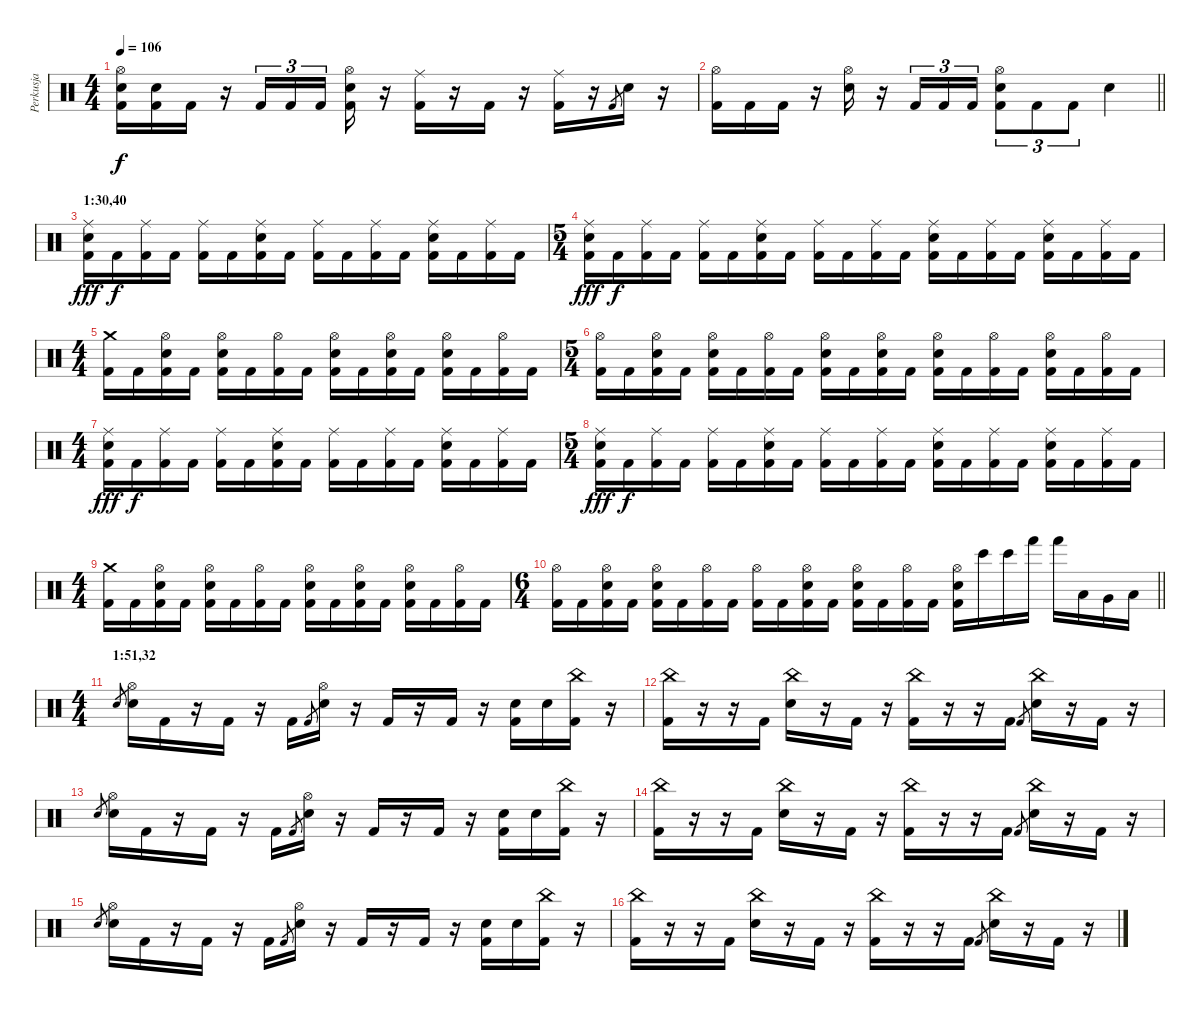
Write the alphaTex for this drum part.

\track ("Perkusja" "Perkusja") {instrument percussion}
\staff {score}
\articulation defaults
\ts (4 4)
\tempo 106
\clef neutral
\ks c
("Hi-Hat (open)" "Electric Snare (hit)" "Kick (hit) 2").16{dy f} ("Electric Snare (hit)" "Kick (hit) 2").16 "Kick (hit) 2".16 r.16 "Kick (hit) 2".16{tu (3 2)} "Kick (hit) 2".16{tu (3 2)} "Kick (hit) 2".16{tu (3 2) beam splitsecondary} ("Hi-Hat (open)" "Electric Snare (hit)" "Kick (hit) 2").16 r.16 ("Ride (middle)" "Kick (hit) 2").16 r.16 "Kick (hit) 2".16 r.16 ("Ride (middle)" "Kick (hit) 2").16 r.16 "Kick (hit) 2".8{gr} "Electric Snare (hit)".16 r.16 |
\barLineRight lightlight
("Hi-Hat (open)" "Kick (hit) 2").16 "Kick (hit) 2".16 "Kick (hit) 2".16 r.16 ("Hi-Hat (open)" "Electric Snare (hit)").16 r.16 "Kick (hit) 2".16{tu (3 2)} "Kick (hit) 2".16{tu (3 2)} "Kick (hit) 2".16{tu (3 2)} ("Hi-Hat (open)" "Electric Snare (hit)" "Kick (hit) 2").8{tu (3 2)} "Kick (hit) 2".8{tu (3 2)} "Kick (hit) 2".8{tu (3 2)} "Electric Snare (hit)".4 |
\section ("" "1:30,40")
("Ride (middle)" "Electric Snare (hit)" "Kick (hit) 2").16{dy fff} "Kick (hit) 2".16{dy f} ("Ride (middle)" "Kick (hit) 2").16 "Kick (hit) 2".16 ("Ride (middle)" "Kick (hit) 2").16 "Kick (hit) 2".16 ("Ride (middle)" "Electric Snare (hit)" "Kick (hit) 2").16 "Kick (hit) 2".16 ("Ride (middle)" "Kick (hit) 2").16 "Kick (hit) 2".16 ("Ride (middle)" "Kick (hit) 2").16 "Kick (hit) 2".16 ("Ride (middle)" "Electric Snare (hit)" "Kick (hit) 2").16 "Kick (hit) 2".16 ("Ride (middle)" "Kick (hit) 2").16 "Kick (hit) 2".16 |
\ts (5 4)
("Ride (middle)" "Electric Snare (hit)" "Kick (hit) 2").16{dy fff} "Kick (hit) 2".16{dy f} ("Ride (middle)" "Kick (hit) 2").16 "Kick (hit) 2".16 ("Ride (middle)" "Kick (hit) 2").16 "Kick (hit) 2".16 ("Ride (middle)" "Electric Snare (hit)" "Kick (hit) 2").16 "Kick (hit) 2".16 ("Ride (middle)" "Kick (hit) 2").16 "Kick (hit) 2".16 ("Ride (middle)" "Kick (hit) 2").16 "Kick (hit) 2".16 ("Ride (middle)" "Electric Snare (hit)" "Kick (hit) 2").16 "Kick (hit) 2".16 ("Ride (middle)" "Kick (hit) 2").16 "Kick (hit) 2".16 ("Ride (middle)" "Electric Snare (hit)" "Kick (hit) 2").16 "Kick (hit) 2".16 ("Ride (middle)" "Kick (hit) 2").16 "Kick (hit) 2".16 |
\ts (4 4)
("Crash medium (hit)" "Kick (hit) 2").16 "Kick (hit) 2".16 ("Hi-Hat (open)" "Electric Snare (hit)" "Kick (hit) 2").16 "Kick (hit) 2".16 ("Hi-Hat (open)" "Electric Snare (hit)" "Kick (hit) 2").16 "Kick (hit) 2".16 ("Hi-Hat (open)" "Kick (hit) 2").16 "Kick (hit) 2".16 ("Hi-Hat (open)" "Electric Snare (hit)" "Kick (hit) 2").16 "Kick (hit) 2".16 ("Hi-Hat (open)" "Electric Snare (hit)" "Kick (hit) 2").16 "Kick (hit) 2".16 ("Hi-Hat (open)" "Electric Snare (hit)" "Kick (hit) 2").16 "Kick (hit) 2".16 ("Hi-Hat (open)" "Kick (hit) 2").16 "Kick (hit) 2".16 |
\ts (5 4)
("Hi-Hat (open)" "Kick (hit) 2").16 "Kick (hit) 2".16 ("Hi-Hat (open)" "Electric Snare (hit)" "Kick (hit) 2").16 "Kick (hit) 2".16 ("Hi-Hat (open)" "Electric Snare (hit)" "Kick (hit) 2").16 "Kick (hit) 2".16 ("Hi-Hat (open)" "Kick (hit) 2").16 "Kick (hit) 2".16 ("Hi-Hat (open)" "Electric Snare (hit)" "Kick (hit) 2").16 "Kick (hit) 2".16 ("Hi-Hat (open)" "Electric Snare (hit)" "Kick (hit) 2").16 "Kick (hit) 2".16 ("Hi-Hat (open)" "Electric Snare (hit)" "Kick (hit) 2").16 "Kick (hit) 2".16 ("Hi-Hat (open)" "Kick (hit) 2").16 "Kick (hit) 2".16 ("Hi-Hat (open)" "Electric Snare (hit)" "Kick (hit) 2").16 "Kick (hit) 2".16 ("Hi-Hat (open)" "Kick (hit) 2").16 "Kick (hit) 2".16 |
\ts (4 4)
("Ride (middle)" "Electric Snare (hit)" "Kick (hit) 2").16{dy fff} "Kick (hit) 2".16{dy f} ("Ride (middle)" "Kick (hit) 2").16 "Kick (hit) 2".16 ("Ride (middle)" "Kick (hit) 2").16 "Kick (hit) 2".16 ("Ride (middle)" "Electric Snare (hit)" "Kick (hit) 2").16 "Kick (hit) 2".16 ("Ride (middle)" "Kick (hit) 2").16 "Kick (hit) 2".16 ("Ride (middle)" "Kick (hit) 2").16 "Kick (hit) 2".16 ("Ride (middle)" "Electric Snare (hit)" "Kick (hit) 2").16 "Kick (hit) 2".16 ("Ride (middle)" "Kick (hit) 2").16 "Kick (hit) 2".16 |
\ts (5 4)
("Ride (middle)" "Electric Snare (hit)" "Kick (hit) 2").16{dy fff} "Kick (hit) 2".16{dy f} ("Ride (middle)" "Kick (hit) 2").16 "Kick (hit) 2".16 ("Ride (middle)" "Kick (hit) 2").16 "Kick (hit) 2".16 ("Ride (middle)" "Electric Snare (hit)" "Kick (hit) 2").16 "Kick (hit) 2".16 ("Ride (middle)" "Kick (hit) 2").16 "Kick (hit) 2".16 ("Ride (middle)" "Kick (hit) 2").16 "Kick (hit) 2".16 ("Ride (middle)" "Electric Snare (hit)" "Kick (hit) 2").16 "Kick (hit) 2".16 ("Ride (middle)" "Kick (hit) 2").16 "Kick (hit) 2".16 ("Ride (middle)" "Electric Snare (hit)" "Kick (hit) 2").16 "Kick (hit) 2".16 ("Ride (middle)" "Kick (hit) 2").16 "Kick (hit) 2".16 |
\ts (4 4)
("Crash medium (hit)" "Kick (hit) 2").16 "Kick (hit) 2".16 ("Hi-Hat (open)" "Electric Snare (hit)" "Kick (hit) 2").16 "Kick (hit) 2".16 ("Hi-Hat (open)" "Electric Snare (hit)" "Kick (hit) 2").16 "Kick (hit) 2".16 ("Hi-Hat (open)" "Kick (hit) 2").16 "Kick (hit) 2".16 ("Hi-Hat (open)" "Electric Snare (hit)" "Kick (hit) 2").16 "Kick (hit) 2".16 ("Hi-Hat (open)" "Electric Snare (hit)" "Kick (hit) 2").16 "Kick (hit) 2".16 ("Hi-Hat (open)" "Electric Snare (hit)" "Kick (hit) 2").16 "Kick (hit) 2".16 ("Hi-Hat (open)" "Kick (hit) 2").16 "Kick (hit) 2".16 |
\ts (6 4)
\barLineRight lightlight
("Hi-Hat (open)" "Kick (hit) 2").16 "Kick (hit) 2".16 ("Hi-Hat (open)" "Electric Snare (hit)" "Kick (hit) 2").16 "Kick (hit) 2".16 ("Hi-Hat (open)" "Electric Snare (hit)" "Kick (hit) 2").16 "Kick (hit) 2".16 ("Hi-Hat (open)" "Kick (hit) 2").16 "Kick (hit) 2".16 ("Hi-Hat (open)" "Kick (hit) 2").16 "Kick (hit) 2".16 ("Hi-Hat (open)" "Electric Snare (hit)" "Kick (hit) 2").16 "Kick (hit) 2".16 ("Hi-Hat (open)" "Electric Snare (hit)" "Kick (hit) 2").16 "Kick (hit) 2".16 ("Hi-Hat (open)" "Kick (hit) 2").16 "Kick (hit) 2".16 ("Hi-Hat (open)" "Electric Snare (hit)" "Kick (hit) 2").16 "Bongo High (hit)".16 "Bongo High (hit)".16 "Hand (hit)".16 "Hand (hit)".16 "Low Tom (hit)".16 "Very Low Tom (hit)".16 "Low Floor Tom (hit)".16 |
\ts (4 4)
\section ("" "1:51,32")
"Electric Snare (hit)".8{gr} ("Hi-Hat (open)" "Electric Snare (hit)").16 "Kick (hit) 2".16 r.16 "Kick (hit) 2".16 r.16 "Kick (hit) 2".16 "Kick (hit) 2".8{gr} ("Hi-Hat (open)" "Electric Snare (hit)").16 r.16 "Kick (hit) 2".16 r.16 "Kick (hit) 2".16 r.16 ("Electric Snare (hit)" "Kick (hit) 2").16 "Electric Snare (hit)".16 ("China (hit)" "Kick (hit) 2").16 r.16 |
("China (hit)" "Kick (hit) 2").16 r.16 r.16 "Kick (hit) 2".16 ("China (hit)" "Electric Snare (hit)").16 r.16 "Kick (hit) 2".16 r.16 ("China (hit)" "Kick (hit) 2").16 r.16 r.16 "Kick (hit) 2".16 "Kick (hit) 2".8{gr} ("China (hit)" "Electric Snare (hit)").16 r.16 "Kick (hit) 2".16 r.16 |
"Electric Snare (hit)".8{gr} ("Hi-Hat (open)" "Electric Snare (hit)").16 "Kick (hit) 2".16 r.16 "Kick (hit) 2".16 r.16 "Kick (hit) 2".16 "Kick (hit) 2".8{gr} ("Hi-Hat (open)" "Electric Snare (hit)").16 r.16 "Kick (hit) 2".16 r.16 "Kick (hit) 2".16 r.16 ("Electric Snare (hit)" "Kick (hit) 2").16 "Electric Snare (hit)".16 ("China (hit)" "Kick (hit) 2").16 r.16 |
("China (hit)" "Kick (hit) 2").16 r.16 r.16 "Kick (hit) 2".16 ("China (hit)" "Electric Snare (hit)").16 r.16 "Kick (hit) 2".16 r.16 ("China (hit)" "Kick (hit) 2").16 r.16 r.16 "Kick (hit) 2".16 "Kick (hit) 2".8{gr} ("China (hit)" "Electric Snare (hit)").16 r.16 "Kick (hit) 2".16 r.16 |
"Electric Snare (hit)".8{gr} ("Hi-Hat (open)" "Electric Snare (hit)").16 "Kick (hit) 2".16 r.16 "Kick (hit) 2".16 r.16 "Kick (hit) 2".16 "Kick (hit) 2".8{gr} ("Hi-Hat (open)" "Electric Snare (hit)").16 r.16 "Kick (hit) 2".16 r.16 "Kick (hit) 2".16 r.16 ("Electric Snare (hit)" "Kick (hit) 2").16 "Electric Snare (hit)".16 ("China (hit)" "Kick (hit) 2").16 r.16 |
("China (hit)" "Kick (hit) 2").16 r.16 r.16 "Kick (hit) 2".16 ("China (hit)" "Electric Snare (hit)").16 r.16 "Kick (hit) 2".16 r.16 ("China (hit)" "Kick (hit) 2").16 r.16 r.16 "Kick (hit) 2".16 "Kick (hit) 2".8{gr} ("China (hit)" "Electric Snare (hit)").16 r.16 "Kick (hit) 2".16 r.16
